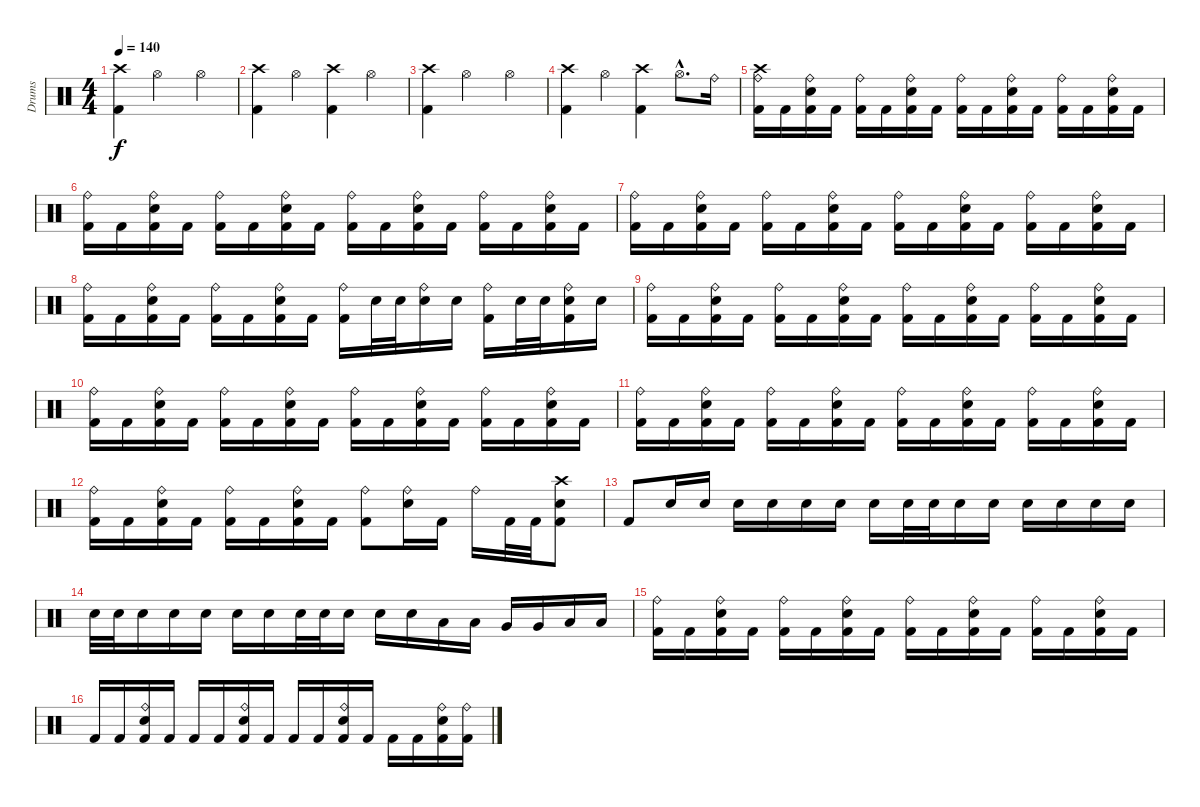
\track ("Drums" "Drums") {instrument percussion}
\staff {score}
\articulation defaults
\ts (4 4)
\tempo 140
\clef neutral
\ks c
("Crash high (hit)" "Kick (hit) 2").4{dy f} "Hi-Hat (open)".2 "Hi-Hat (open)".4 |
("Crash high (hit)" "Kick (hit) 2").4 "Hi-Hat (open)".4 ("Crash high (hit)" "Kick (hit) 2").4 "Hi-Hat (open)".4 |
("Crash high (hit)" "Kick (hit) 2").4 "Hi-Hat (open)".2 "Hi-Hat (open)".4 |
("Crash high (hit)" "Kick (hit) 2").4 "Hi-Hat (open)".4 ("Crash high (hit)" "Kick (hit) 2").4 "Hi-Hat (open)"{hac}.8{d} "Ride (bell)".16 |
("Crash high (hit)" "Ride (bell)" "Kick (hit) 2").16 "Kick (hit) 2".16 ("Electric Snare (hit)" "Ride (bell)" "Kick (hit) 2").16 "Kick (hit) 2".16 ("Ride (bell)" "Kick (hit) 2").16 "Kick (hit) 2".16 ("Electric Snare (hit)" "Ride (bell)" "Kick (hit) 2").16 "Kick (hit) 2".16 ("Ride (bell)" "Kick (hit) 2").16 "Kick (hit) 2".16 ("Electric Snare (hit)" "Ride (bell)" "Kick (hit) 2").16 "Kick (hit) 2".16 ("Ride (bell)" "Kick (hit) 2").16 "Kick (hit) 2".16 ("Electric Snare (hit)" "Ride (bell)" "Kick (hit) 2").16 "Kick (hit) 2".16 |
("Ride (bell)" "Kick (hit) 2").16 "Kick (hit) 2".16 ("Electric Snare (hit)" "Ride (bell)" "Kick (hit) 2").16 "Kick (hit) 2".16 ("Ride (bell)" "Kick (hit) 2").16 "Kick (hit) 2".16 ("Electric Snare (hit)" "Ride (bell)" "Kick (hit) 2").16 "Kick (hit) 2".16 ("Ride (bell)" "Kick (hit) 2").16 "Kick (hit) 2".16 ("Electric Snare (hit)" "Ride (bell)" "Kick (hit) 2").16 "Kick (hit) 2".16 ("Ride (bell)" "Kick (hit) 2").16 "Kick (hit) 2".16 ("Electric Snare (hit)" "Ride (bell)" "Kick (hit) 2").16 "Kick (hit) 2".16 |
("Ride (bell)" "Kick (hit) 2").16 "Kick (hit) 2".16 ("Electric Snare (hit)" "Ride (bell)" "Kick (hit) 2").16 "Kick (hit) 2".16 ("Ride (bell)" "Kick (hit) 2").16 "Kick (hit) 2".16 ("Electric Snare (hit)" "Ride (bell)" "Kick (hit) 2").16 "Kick (hit) 2".16 ("Ride (bell)" "Kick (hit) 2").16 "Kick (hit) 2".16 ("Electric Snare (hit)" "Ride (bell)" "Kick (hit) 2").16 "Kick (hit) 2".16 ("Ride (bell)" "Kick (hit) 2").16 "Kick (hit) 2".16 ("Electric Snare (hit)" "Ride (bell)" "Kick (hit) 2").16 "Kick (hit) 2".16 |
("Ride (bell)" "Kick (hit) 2").16 "Kick (hit) 2".16 ("Electric Snare (hit)" "Ride (bell)" "Kick (hit) 2").16 "Kick (hit) 2".16 ("Ride (bell)" "Kick (hit) 2").16 "Kick (hit) 2".16 ("Electric Snare (hit)" "Ride (bell)" "Kick (hit) 2").16 "Kick (hit) 2".16 ("Ride (bell)" "Kick (hit) 2").16 "Electric Snare (hit)".32 "Electric Snare (hit)".32 ("Electric Snare (hit)" "Ride (bell)").16 "Electric Snare (hit)".16 ("Ride (bell)" "Kick (hit) 2").16 "Electric Snare (hit)".32 "Electric Snare (hit)".32 ("Electric Snare (hit)" "Ride (bell)" "Kick (hit) 2").16 "Electric Snare (hit)".16 |
("Ride (bell)" "Kick (hit) 2").16 "Kick (hit) 2".16 ("Electric Snare (hit)" "Ride (bell)" "Kick (hit) 2").16 "Kick (hit) 2".16 ("Ride (bell)" "Kick (hit) 2").16 "Kick (hit) 2".16 ("Electric Snare (hit)" "Ride (bell)" "Kick (hit) 2").16 "Kick (hit) 2".16 ("Ride (bell)" "Kick (hit) 2").16 "Kick (hit) 2".16 ("Electric Snare (hit)" "Ride (bell)" "Kick (hit) 2").16 "Kick (hit) 2".16 ("Ride (bell)" "Kick (hit) 2").16 "Kick (hit) 2".16 ("Electric Snare (hit)" "Ride (bell)" "Kick (hit) 2").16 "Kick (hit) 2".16 |
("Ride (bell)" "Kick (hit) 2").16 "Kick (hit) 2".16 ("Electric Snare (hit)" "Ride (bell)" "Kick (hit) 2").16 "Kick (hit) 2".16 ("Ride (bell)" "Kick (hit) 2").16 "Kick (hit) 2".16 ("Electric Snare (hit)" "Ride (bell)" "Kick (hit) 2").16 "Kick (hit) 2".16 ("Ride (bell)" "Kick (hit) 2").16 "Kick (hit) 2".16 ("Electric Snare (hit)" "Ride (bell)" "Kick (hit) 2").16 "Kick (hit) 2".16 ("Ride (bell)" "Kick (hit) 2").16 "Kick (hit) 2".16 ("Electric Snare (hit)" "Ride (bell)" "Kick (hit) 2").16 "Kick (hit) 2".16 |
("Ride (bell)" "Kick (hit) 2").16 "Kick (hit) 2".16 ("Electric Snare (hit)" "Ride (bell)" "Kick (hit) 2").16 "Kick (hit) 2".16 ("Ride (bell)" "Kick (hit) 2").16 "Kick (hit) 2".16 ("Electric Snare (hit)" "Ride (bell)" "Kick (hit) 2").16 "Kick (hit) 2".16 ("Ride (bell)" "Kick (hit) 2").16 "Kick (hit) 2".16 ("Electric Snare (hit)" "Ride (bell)" "Kick (hit) 2").16 "Kick (hit) 2".16 ("Ride (bell)" "Kick (hit) 2").16 "Kick (hit) 2".16 ("Electric Snare (hit)" "Ride (bell)" "Kick (hit) 2").16 "Kick (hit) 2".16 |
("Ride (bell)" "Kick (hit) 2").16 "Kick (hit) 2".16 ("Electric Snare (hit)" "Ride (bell)" "Kick (hit) 2").16 "Kick (hit) 2".16 ("Ride (bell)" "Kick (hit) 2").16 "Kick (hit) 2".16 ("Electric Snare (hit)" "Ride (bell)" "Kick (hit) 2").16 "Kick (hit) 2".16 ("Ride (bell)" "Kick (hit) 2").8 ("Electric Snare (hit)" "Ride (bell)").16 "Kick (hit) 2".16 "Ride (bell)".16 "Kick (hit) 2".32 "Kick (hit) 2".32 ("Electric Snare (hit)" "Crash high (hit)" "Kick (hit) 2").8 |
"Kick (hit) 2".8 "Electric Snare (hit)".16 "Electric Snare (hit)".16 "Snare (hit)"{x}.16 "Electric Snare (hit)".16 "Electric Snare (hit)".16 "Snare (hit)"{x}.16 "Snare (hit) 2"{x}.16 "Electric Snare (hit)".32 "Electric Snare (hit)".32 "Electric Snare (hit)".16 "Electric Snare (hit)".16 "Electric Snare (hit)".16 "Electric Snare (hit)".16 "Electric Snare (hit)".16 "Electric Snare (hit)".16 |
"Electric Snare (hit)".32 "Electric Snare (hit)".32 "Electric Snare (hit)".16 "Electric Snare (hit)".16 "Electric Snare (hit)".16 "Electric Snare (hit)".16 "Electric Snare (hit)".16 "Electric Snare (hit)".32 "Electric Snare (hit)".32 "Electric Snare (hit)".16 "Electric Snare (hit)".16 "Electric Snare (hit)".16 "Low Tom (hit)".16 "Low Tom (hit)".16 "Very Low Tom (hit)".16 "Very Low Tom (hit)".16 "Low Floor Tom (hit)".16 "Low Floor Tom (hit)".16 |
("Ride (bell)" "Kick (hit) 2").16 "Kick (hit) 2".16 ("Electric Snare (hit)" "Ride (bell)" "Kick (hit) 2").16 "Kick (hit) 2".16 ("Ride (bell)" "Kick (hit) 2").16 "Kick (hit) 2".16 ("Electric Snare (hit)" "Ride (bell)" "Kick (hit) 2").16 "Kick (hit) 2".16 ("Ride (bell)" "Kick (hit) 2").16 "Kick (hit) 2".16 ("Electric Snare (hit)" "Ride (bell)" "Kick (hit) 2").16 "Kick (hit) 2".16 ("Ride (bell)" "Kick (hit) 2").16 "Kick (hit) 2".16 ("Electric Snare (hit)" "Ride (bell)" "Kick (hit) 2").16 "Kick (hit) 2".16 |
"Kick (hit) 2".16 "Kick (hit) 2".16 ("Electric Snare (hit)" "Ride (bell)" "Kick (hit) 2").16 "Kick (hit) 2".16 "Kick (hit) 2".16 "Kick (hit) 2".16 ("Electric Snare (hit)" "Ride (bell)" "Kick (hit) 2").16 "Kick (hit) 2".16 "Kick (hit) 2".16 "Kick (hit) 2".16 ("Electric Snare (hit)" "Ride (bell)" "Kick (hit) 2").16 "Kick (hit) 2".16 "Kick (hit) 2".16 "Kick (hit) 2".16 ("Electric Snare (hit)" "Ride (bell)" "Kick (hit) 2").16 ("Ride (bell)" "Kick (hit) 2").16
